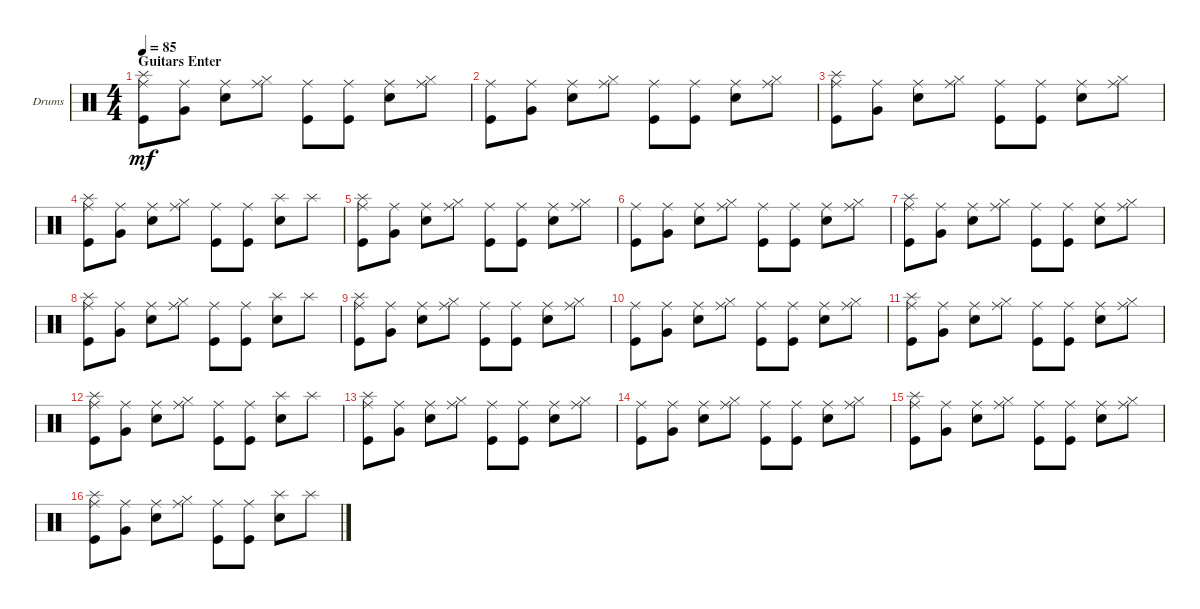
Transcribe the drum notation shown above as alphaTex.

\defaultSystemsLayout 4
\bracketExtendMode groupsimilarinstruments
\firstSystemTrackNameOrientation horizontal
\otherSystemsTrackNameOrientation horizontal
\track ("Drumkit" "Drums") {instrument percussion}
\staff {score}
\articulation defaults
\ts (4 4)
\section ("" "Guitars Enter")
\tempo 85
\clef neutral
\scale
0.333333
\ks c
("Splash (hit)" "Kick (hit)" "Ride (middle)").8{dy mf} ("Very Low Tom (hit)" "Ride (middle)").8 ("Snare (hit) 2" "Ride (middle)").8 ("Hi-Hat (closed)" "Ride (middle)").8 ("Kick (hit)" "Ride (middle)").8 ("Ride (middle)" "Kick (hit)").8 ("Snare (hit) 2" "Ride (middle)").8 ("Hi-Hat (closed)" "Ride (middle)").8 |
\scale
0.333333 ("Kick (hit)" "Ride (middle)").8 ("Very Low Tom (hit)" "Ride (middle)").8 ("Snare (hit) 2" "Ride (middle)").8 ("Hi-Hat (closed)" "Ride (middle)").8 ("Kick (hit)" "Ride (middle)").8 ("Ride (middle)" "Kick (hit)").8 ("Snare (hit) 2" "Ride (middle)").8 ("Hi-Hat (closed)" "Ride (middle)").8 |
\scale
0.333333 ("Splash (hit)" "Kick (hit)" "Ride (middle)").8 ("Very Low Tom (hit)" "Ride (middle)").8 ("Snare (hit) 2" "Ride (middle)").8 ("Hi-Hat (closed)" "Ride (middle)").8 ("Kick (hit)" "Ride (middle)").8 ("Ride (middle)" "Kick (hit)").8 ("Snare (hit) 2" "Ride (middle)").8 ("Hi-Hat (closed)" "Ride (middle)").8 |
\scale
0.333333 ("Splash (hit)" "Kick (hit)" "Ride (middle)").8 ("Very Low Tom (hit)" "Ride (middle)").8 ("Snare (hit) 2" "Ride (middle)").8 ("Hi-Hat (closed)" "Ride (middle)").8 ("Kick (hit)" "Ride (middle)").8 ("Ride (middle)" "Kick (hit)").8 ("Snare (hit) 2" "Splash (hit)").8 "Splash (hit)".8 |
\scale
0.333333 ("Splash (hit)" "Kick (hit)" "Ride (middle)").8 ("Very Low Tom (hit)" "Ride (middle)").8 ("Snare (hit) 2" "Ride (middle)").8 ("Hi-Hat (closed)" "Ride (middle)").8 ("Kick (hit)" "Ride (middle)").8 ("Ride (middle)" "Kick (hit)").8 ("Snare (hit) 2" "Ride (middle)").8 ("Hi-Hat (closed)" "Ride (middle)").8 |
\scale
0.333333 ("Kick (hit)" "Ride (middle)").8 ("Very Low Tom (hit)" "Ride (middle)").8 ("Snare (hit) 2" "Ride (middle)").8 ("Hi-Hat (closed)" "Ride (middle)").8 ("Kick (hit)" "Ride (middle)").8 ("Ride (middle)" "Kick (hit)").8 ("Snare (hit) 2" "Ride (middle)").8 ("Hi-Hat (closed)" "Ride (middle)").8 |
\scale
0.333333 ("Splash (hit)" "Kick (hit)" "Ride (middle)").8 ("Very Low Tom (hit)" "Ride (middle)").8 ("Snare (hit) 2" "Ride (middle)").8 ("Hi-Hat (closed)" "Ride (middle)").8 ("Kick (hit)" "Ride (middle)").8 ("Ride (middle)" "Kick (hit)").8 ("Snare (hit) 2" "Ride (middle)").8 ("Hi-Hat (closed)" "Ride (middle)").8 |
\scale
0.333333 ("Splash (hit)" "Kick (hit)" "Ride (middle)").8 ("Very Low Tom (hit)" "Ride (middle)").8 ("Snare (hit) 2" "Ride (middle)").8 ("Hi-Hat (closed)" "Ride (middle)").8 ("Kick (hit)" "Ride (middle)").8 ("Ride (middle)" "Kick (hit)").8 ("Snare (hit) 2" "Splash (hit)").8 "Splash (hit)".8 |
("Splash (hit)" "Kick (hit)" "Ride (middle)").8 ("Very Low Tom (hit)" "Ride (middle)").8 ("Snare (hit) 2" "Ride (middle)").8 ("Hi-Hat (closed)" "Ride (middle)").8 ("Kick (hit)" "Ride (middle)").8 ("Ride (middle)" "Kick (hit)").8 ("Snare (hit) 2" "Ride (middle)").8 ("Hi-Hat (closed)" "Ride (middle)").8 |
("Kick (hit)" "Ride (middle)").8 ("Very Low Tom (hit)" "Ride (middle)").8 ("Snare (hit) 2" "Ride (middle)").8 ("Hi-Hat (closed)" "Ride (middle)").8 ("Kick (hit)" "Ride (middle)").8 ("Ride (middle)" "Kick (hit)").8 ("Snare (hit) 2" "Ride (middle)").8 ("Hi-Hat (closed)" "Ride (middle)").8 |
("Splash (hit)" "Kick (hit)" "Ride (middle)").8 ("Very Low Tom (hit)" "Ride (middle)").8 ("Snare (hit) 2" "Ride (middle)").8 ("Hi-Hat (closed)" "Ride (middle)").8 ("Kick (hit)" "Ride (middle)").8 ("Ride (middle)" "Kick (hit)").8 ("Snare (hit) 2" "Ride (middle)").8 ("Hi-Hat (closed)" "Ride (middle)").8 |
("Splash (hit)" "Kick (hit)" "Ride (middle)").8 ("Very Low Tom (hit)" "Ride (middle)").8 ("Snare (hit) 2" "Ride (middle)").8 ("Hi-Hat (closed)" "Ride (middle)").8 ("Kick (hit)" "Ride (middle)").8 ("Ride (middle)" "Kick (hit)").8 ("Snare (hit) 2" "Splash (hit)").8 "Splash (hit)".8 |
("Splash (hit)" "Kick (hit)" "Ride (middle)").8 ("Very Low Tom (hit)" "Ride (middle)").8 ("Snare (hit) 2" "Ride (middle)").8 ("Hi-Hat (closed)" "Ride (middle)").8 ("Kick (hit)" "Ride (middle)").8 ("Ride (middle)" "Kick (hit)").8 ("Snare (hit) 2" "Ride (middle)").8 ("Hi-Hat (closed)" "Ride (middle)").8 |
("Kick (hit)" "Ride (middle)").8 ("Very Low Tom (hit)" "Ride (middle)").8 ("Snare (hit) 2" "Ride (middle)").8 ("Hi-Hat (closed)" "Ride (middle)").8 ("Kick (hit)" "Ride (middle)").8 ("Ride (middle)" "Kick (hit)").8 ("Snare (hit) 2" "Ride (middle)").8 ("Hi-Hat (closed)" "Ride (middle)").8 |
("Splash (hit)" "Kick (hit)" "Ride (middle)").8 ("Very Low Tom (hit)" "Ride (middle)").8 ("Snare (hit) 2" "Ride (middle)").8 ("Hi-Hat (closed)" "Ride (middle)").8 ("Kick (hit)" "Ride (middle)").8 ("Ride (middle)" "Kick (hit)").8 ("Snare (hit) 2" "Ride (middle)").8 ("Hi-Hat (closed)" "Ride (middle)").8 |
("Splash (hit)" "Kick (hit)" "Ride (middle)").8 ("Very Low Tom (hit)" "Ride (middle)").8 ("Snare (hit) 2" "Ride (middle)").8 ("Hi-Hat (closed)" "Ride (middle)").8 ("Kick (hit)" "Ride (middle)").8 ("Ride (middle)" "Kick (hit)").8 ("Snare (hit) 2" "Splash (hit)").8 "Splash (hit)".8
